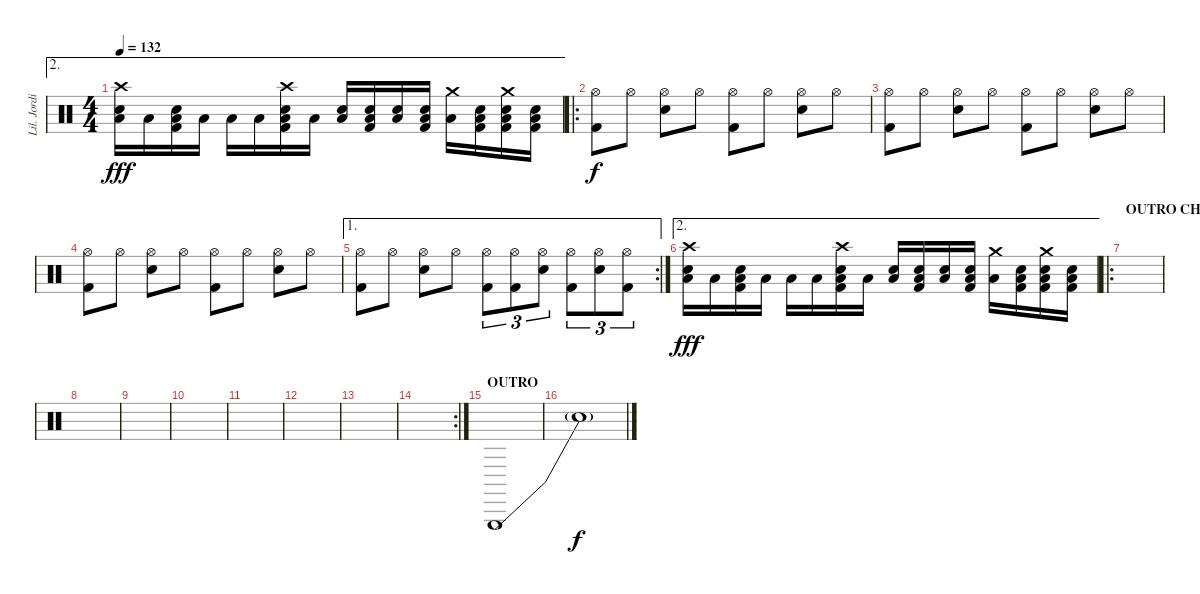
\track ("Lil. Jordison" "Lil. Jordi") {instrument percussion}
\staff {score}
\articulation defaults
\ae 2
\ts (4 4)
\tempo 132
\clef neutral
\ks c
("Crash high (hit)" "Electric Snare (hit)" "Low Floor Tom (hit)").16{dy fff} "Low Floor Tom (hit)".16 ("Electric Snare (hit)" "Kick (hit) 2" "Low Floor Tom (hit)").16 "Low Floor Tom (hit)".16 "Low Floor Tom (hit)".16 "Low Floor Tom (hit)".16 ("Crash high (hit)" "Electric Snare (hit)" "Kick (hit) 2" "Low Floor Tom (hit)").16 "Low Floor Tom (hit)".16 ("Electric Snare (hit)" "Low Floor Tom (hit)").16 ("Electric Snare (hit)" "Kick (hit) 2" "Low Floor Tom (hit)").16 ("Electric Snare (hit)" "Low Floor Tom (hit)").16 ("Electric Snare (hit)" "Kick (hit) 2" "Low Floor Tom (hit)").16 ("Crash medium (hit)" "Low Floor Tom (hit)").16 ("Electric Snare (hit)" "Kick (hit) 2" "Low Floor Tom (hit)").16 ("Crash medium (hit)" "Electric Snare (hit)" "Kick (hit) 2" "Low Floor Tom (hit)").16 ("Electric Snare (hit)" "Kick (hit) 2" "Low Floor Tom (hit)").16 |
\ro
("Hi-Hat (open)" "Kick (hit) 2").8{dy f} "Hi-Hat (open)".8 ("Hi-Hat (open)" "Electric Snare (hit)").8 "Hi-Hat (open)".8 ("Hi-Hat (open)" "Kick (hit) 2").8 "Hi-Hat (open)".8 ("Hi-Hat (open)" "Electric Snare (hit)").8 "Hi-Hat (open)".8 |
("Hi-Hat (open)" "Kick (hit) 2").8 "Hi-Hat (open)".8 ("Hi-Hat (open)" "Electric Snare (hit)").8 "Hi-Hat (open)".8 ("Hi-Hat (open)" "Kick (hit) 2").8 "Hi-Hat (open)".8 ("Hi-Hat (open)" "Electric Snare (hit)").8 "Hi-Hat (open)".8 |
("Hi-Hat (open)" "Kick (hit) 2").8 "Hi-Hat (open)".8 ("Hi-Hat (open)" "Electric Snare (hit)").8 "Hi-Hat (open)".8 ("Hi-Hat (open)" "Kick (hit) 2").8 "Hi-Hat (open)".8 ("Hi-Hat (open)" "Electric Snare (hit)").8 "Hi-Hat (open)".8 |
\ae 1
\rc 2
("Hi-Hat (open)" "Kick (hit) 2").8 "Hi-Hat (open)".8 ("Hi-Hat (open)" "Electric Snare (hit)").8 "Hi-Hat (open)".8 ("Hi-Hat (open)" "Kick (hit) 2").8{tu (3 2)} ("Hi-Hat (open)" "Kick (hit) 2").8{tu (3 2)} ("Hi-Hat (open)" "Electric Snare (hit)").8{tu (3 2)} ("Hi-Hat (open)" "Kick (hit) 2").8{tu (3 2)} ("Hi-Hat (open)" "Electric Snare (hit)").8{tu (3 2)} ("Hi-Hat (open)" "Kick (hit) 2").8{tu (3 2)} |
\ae 2
("Crash high (hit)" "Electric Snare (hit)" "Low Floor Tom (hit)").16{dy fff} "Low Floor Tom (hit)".16 ("Electric Snare (hit)" "Kick (hit) 2" "Low Floor Tom (hit)").16 "Low Floor Tom (hit)".16 "Low Floor Tom (hit)".16 "Low Floor Tom (hit)".16 ("Crash high (hit)" "Electric Snare (hit)" "Kick (hit) 2" "Low Floor Tom (hit)").16 "Low Floor Tom (hit)".16 ("Electric Snare (hit)" "Low Floor Tom (hit)").16 ("Electric Snare (hit)" "Kick (hit) 2" "Low Floor Tom (hit)").16 ("Electric Snare (hit)" "Low Floor Tom (hit)").16 ("Electric Snare (hit)" "Kick (hit) 2" "Low Floor Tom (hit)").16 ("Crash medium (hit)" "Low Floor Tom (hit)").16 ("Electric Snare (hit)" "Kick (hit) 2" "Low Floor Tom (hit)").16 ("Crash medium (hit)" "Electric Snare (hit)" "Kick (hit) 2" "Low Floor Tom (hit)").16 ("Electric Snare (hit)" "Kick (hit) 2" "Low Floor Tom (hit)").16 |
\ro
\section ("" "OUTRO CHORUS")
|
|
|
|
|
|
|
\rc 2
|
\section ("" "OUTRO")
"Triangle (hit)"{be (bend 0 0 60 12)}.1{volume 16 balance 8} |
"Snare (hit)"{t}.1{dy f}
